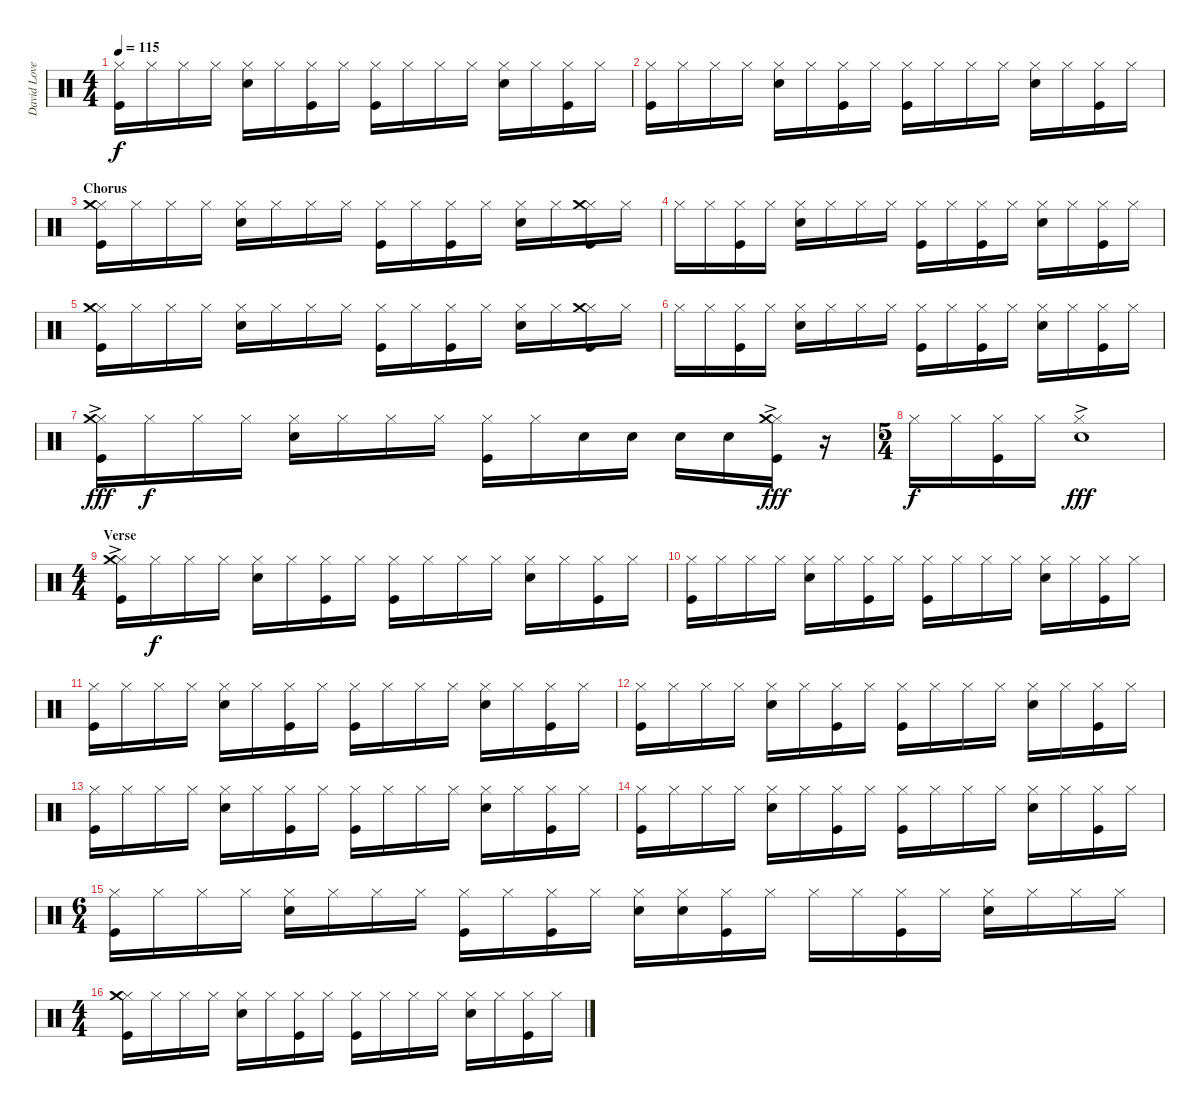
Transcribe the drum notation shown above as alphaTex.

\track ("David Lovering" "David Love") {instrument percussion}
\staff {score}
\articulation defaults
\ts (4 4)
\tempo 115
\clef neutral
\ks c
("Hi-Hat (closed)" "Kick (hit)").16{dy f} "Hi-Hat (closed)".16 "Hi-Hat (closed)".16 "Hi-Hat (closed)".16 ("Hi-Hat (closed)" "Snare (hit) 2").16 "Hi-Hat (closed)".16 ("Hi-Hat (closed)" "Kick (hit)").16 "Hi-Hat (closed)".16 ("Hi-Hat (closed)" "Kick (hit)").16 "Hi-Hat (closed)".16 "Hi-Hat (closed)".16 "Hi-Hat (closed)".16 ("Hi-Hat (closed)" "Snare (hit) 2").16 "Hi-Hat (closed)".16 ("Hi-Hat (closed)" "Kick (hit)").16 "Hi-Hat (closed)".16 |
("Hi-Hat (closed)" "Kick (hit)").16 "Hi-Hat (closed)".16 "Hi-Hat (closed)".16 "Hi-Hat (closed)".16 ("Hi-Hat (closed)" "Snare (hit) 2").16 "Hi-Hat (closed)".16 ("Hi-Hat (closed)" "Kick (hit)").16 "Hi-Hat (closed)".16 ("Hi-Hat (closed)" "Kick (hit)").16 "Hi-Hat (closed)".16 "Hi-Hat (closed)".16 "Hi-Hat (closed)".16 ("Hi-Hat (closed)" "Snare (hit) 2").16 "Hi-Hat (closed)".16 ("Hi-Hat (closed)" "Kick (hit)").16 "Hi-Hat (closed)".16 |
\section ("" "Chorus")
("Hi-Hat (closed)" "Crash medium (hit)" "Kick (hit)").16 "Hi-Hat (closed)".16 "Hi-Hat (closed)".16 "Hi-Hat (closed)".16 ("Hi-Hat (closed)" "Snare (hit) 2").16 "Hi-Hat (closed)".16 "Hi-Hat (closed)".16 "Hi-Hat (closed)".16 ("Hi-Hat (closed)" "Kick (hit)").16 "Hi-Hat (closed)".16 ("Hi-Hat (closed)" "Kick (hit)").16 "Hi-Hat (closed)".16 ("Hi-Hat (closed)" "Snare (hit) 2").16 "Hi-Hat (closed)".16 ("Hi-Hat (closed)" "Crash medium (hit)" "Kick (hit)").16 "Hi-Hat (closed)".16 |
"Hi-Hat (closed)".16 "Hi-Hat (closed)".16 ("Hi-Hat (closed)" "Kick (hit)").16 "Hi-Hat (closed)".16 ("Hi-Hat (closed)" "Snare (hit) 2").16 "Hi-Hat (closed)".16 "Hi-Hat (closed)".16 "Hi-Hat (closed)".16 ("Hi-Hat (closed)" "Kick (hit)").16 "Hi-Hat (closed)".16 ("Hi-Hat (closed)" "Kick (hit)").16 "Hi-Hat (closed)".16 ("Hi-Hat (closed)" "Snare (hit) 2").16 "Hi-Hat (closed)".16 ("Hi-Hat (closed)" "Kick (hit)").16 "Hi-Hat (closed)".16 |
("Hi-Hat (closed)" "Crash medium (hit)" "Kick (hit)").16 "Hi-Hat (closed)".16 "Hi-Hat (closed)".16 "Hi-Hat (closed)".16 ("Hi-Hat (closed)" "Snare (hit) 2").16 "Hi-Hat (closed)".16 "Hi-Hat (closed)".16 "Hi-Hat (closed)".16 ("Hi-Hat (closed)" "Kick (hit)").16 "Hi-Hat (closed)".16 ("Hi-Hat (closed)" "Kick (hit)").16 "Hi-Hat (closed)".16 ("Hi-Hat (closed)" "Snare (hit) 2").16 "Hi-Hat (closed)".16 ("Hi-Hat (closed)" "Crash medium (hit)" "Kick (hit)").16 "Hi-Hat (closed)".16 |
"Hi-Hat (closed)".16 "Hi-Hat (closed)".16 ("Hi-Hat (closed)" "Kick (hit)").16 "Hi-Hat (closed)".16 ("Hi-Hat (closed)" "Snare (hit) 2").16 "Hi-Hat (closed)".16 "Hi-Hat (closed)".16 "Hi-Hat (closed)".16 ("Hi-Hat (closed)" "Kick (hit)").16 "Hi-Hat (closed)".16 ("Hi-Hat (closed)" "Kick (hit)").16 "Hi-Hat (closed)".16 ("Hi-Hat (closed)" "Snare (hit) 2").16 "Hi-Hat (closed)".16 ("Hi-Hat (closed)" "Kick (hit)").16 "Hi-Hat (closed)".16 |
("Hi-Hat (closed)" "Crash medium (hit)"{ac} "Kick (hit)").16{dy fff} "Hi-Hat (closed)".16{dy f} "Hi-Hat (closed)".16 "Hi-Hat (closed)".16 ("Hi-Hat (closed)" "Snare (hit) 2").16 "Hi-Hat (closed)".16 "Hi-Hat (closed)".16 "Hi-Hat (closed)".16 ("Hi-Hat (closed)" "Kick (hit)").16 "Hi-Hat (closed)".16 "Snare (hit) 2".16 "Snare (hit) 2".16 "Snare (hit) 2".16 "Snare (hit) 2".16 ("Hi-Hat (closed)" "Crash medium (hit)"{ac} "Kick (hit)").16{dy fff} r.16 |
\ts (5 4)
"Hi-Hat (closed)".16{dy f} "Hi-Hat (closed)".16 ("Hi-Hat (closed)" "Kick (hit)").16 "Hi-Hat (closed)".16 ("Hi-Hat (closed)" "Snare (hit) 2"{ac}).1{dy fff} |
\ts (4 4)
\section ("" "Verse")
("Hi-Hat (closed)" "Crash medium (hit)"{ac} "Kick (hit)").16 "Hi-Hat (closed)".16{dy f} "Hi-Hat (closed)".16 "Hi-Hat (closed)".16 ("Hi-Hat (closed)" "Snare (hit) 2").16 "Hi-Hat (closed)".16 ("Hi-Hat (closed)" "Kick (hit)").16 "Hi-Hat (closed)".16 ("Hi-Hat (closed)" "Kick (hit)").16 "Hi-Hat (closed)".16 "Hi-Hat (closed)".16 "Hi-Hat (closed)".16 ("Hi-Hat (closed)" "Snare (hit) 2").16 "Hi-Hat (closed)".16 ("Hi-Hat (closed)" "Kick (hit)").16 "Hi-Hat (closed)".16 |
("Hi-Hat (closed)" "Kick (hit)").16 "Hi-Hat (closed)".16 "Hi-Hat (closed)".16 "Hi-Hat (closed)".16 ("Hi-Hat (closed)" "Snare (hit) 2").16 "Hi-Hat (closed)".16 ("Hi-Hat (closed)" "Kick (hit)").16 "Hi-Hat (closed)".16 ("Hi-Hat (closed)" "Kick (hit)").16 "Hi-Hat (closed)".16 "Hi-Hat (closed)".16 "Hi-Hat (closed)".16 ("Hi-Hat (closed)" "Snare (hit) 2").16 "Hi-Hat (closed)".16 ("Hi-Hat (closed)" "Kick (hit)").16 "Hi-Hat (closed)".16 |
("Hi-Hat (closed)" "Kick (hit)").16 "Hi-Hat (closed)".16 "Hi-Hat (closed)".16 "Hi-Hat (closed)".16 ("Hi-Hat (closed)" "Snare (hit) 2").16 "Hi-Hat (closed)".16 ("Hi-Hat (closed)" "Kick (hit)").16 "Hi-Hat (closed)".16 ("Hi-Hat (closed)" "Kick (hit)").16 "Hi-Hat (closed)".16 "Hi-Hat (closed)".16 "Hi-Hat (closed)".16 ("Hi-Hat (closed)" "Snare (hit) 2").16 "Hi-Hat (closed)".16 ("Hi-Hat (closed)" "Kick (hit)").16 "Hi-Hat (closed)".16 |
("Hi-Hat (closed)" "Kick (hit)").16 "Hi-Hat (closed)".16 "Hi-Hat (closed)".16 "Hi-Hat (closed)".16 ("Hi-Hat (closed)" "Snare (hit) 2").16 "Hi-Hat (closed)".16 ("Hi-Hat (closed)" "Kick (hit)").16 "Hi-Hat (closed)".16 ("Hi-Hat (closed)" "Kick (hit)").16 "Hi-Hat (closed)".16 "Hi-Hat (closed)".16 "Hi-Hat (closed)".16 ("Hi-Hat (closed)" "Snare (hit) 2").16 "Hi-Hat (closed)".16 ("Hi-Hat (closed)" "Kick (hit)").16 "Hi-Hat (closed)".16 |
("Hi-Hat (closed)" "Kick (hit)").16 "Hi-Hat (closed)".16 "Hi-Hat (closed)".16 "Hi-Hat (closed)".16 ("Hi-Hat (closed)" "Snare (hit) 2").16 "Hi-Hat (closed)".16 ("Hi-Hat (closed)" "Kick (hit)").16 "Hi-Hat (closed)".16 ("Hi-Hat (closed)" "Kick (hit)").16 "Hi-Hat (closed)".16 "Hi-Hat (closed)".16 "Hi-Hat (closed)".16 ("Hi-Hat (closed)" "Snare (hit) 2").16 "Hi-Hat (closed)".16 ("Hi-Hat (closed)" "Kick (hit)").16 "Hi-Hat (closed)".16 |
("Hi-Hat (closed)" "Kick (hit)").16 "Hi-Hat (closed)".16 "Hi-Hat (closed)".16 "Hi-Hat (closed)".16 ("Hi-Hat (closed)" "Snare (hit) 2").16 "Hi-Hat (closed)".16 ("Hi-Hat (closed)" "Kick (hit)").16 "Hi-Hat (closed)".16 ("Hi-Hat (closed)" "Kick (hit)").16 "Hi-Hat (closed)".16 "Hi-Hat (closed)".16 "Hi-Hat (closed)".16 ("Hi-Hat (closed)" "Snare (hit) 2").16 "Hi-Hat (closed)".16 ("Hi-Hat (closed)" "Kick (hit)").16 "Hi-Hat (closed)".16 |
\ts (6 4)
("Hi-Hat (closed)" "Kick (hit)").16 "Hi-Hat (closed)".16 "Hi-Hat (closed)".16 "Hi-Hat (closed)".16 ("Hi-Hat (closed)" "Snare (hit) 2").16 "Hi-Hat (closed)".16 "Hi-Hat (closed)".16 "Hi-Hat (closed)".16 ("Hi-Hat (closed)" "Kick (hit)").16 "Hi-Hat (closed)".16 ("Hi-Hat (closed)" "Kick (hit)").16 "Hi-Hat (closed)".16 ("Hi-Hat (closed)" "Snare (hit) 2").16 ("Hi-Hat (closed)" "Snare (hit) 2").16 ("Hi-Hat (closed)" "Kick (hit)").16 "Hi-Hat (closed)".16 "Hi-Hat (closed)".16 "Hi-Hat (closed)".16 ("Hi-Hat (closed)" "Kick (hit)").16 "Hi-Hat (closed)".16 ("Hi-Hat (closed)" "Snare (hit) 2").16 "Hi-Hat (closed)".16 "Hi-Hat (closed)".16 "Hi-Hat (closed)".16 |
\ts (4 4)
("Hi-Hat (closed)" "Crash medium (hit)" "Kick (hit)").16 "Hi-Hat (closed)".16 "Hi-Hat (closed)".16 "Hi-Hat (closed)".16 ("Hi-Hat (closed)" "Snare (hit) 2").16 "Hi-Hat (closed)".16 ("Hi-Hat (closed)" "Kick (hit)").16 "Hi-Hat (closed)".16 ("Hi-Hat (closed)" "Kick (hit)").16 "Hi-Hat (closed)".16 "Hi-Hat (closed)".16 "Hi-Hat (closed)".16 ("Hi-Hat (closed)" "Snare (hit) 2").16 "Hi-Hat (closed)".16 ("Hi-Hat (closed)" "Kick (hit)").16 "Hi-Hat (closed)".16
